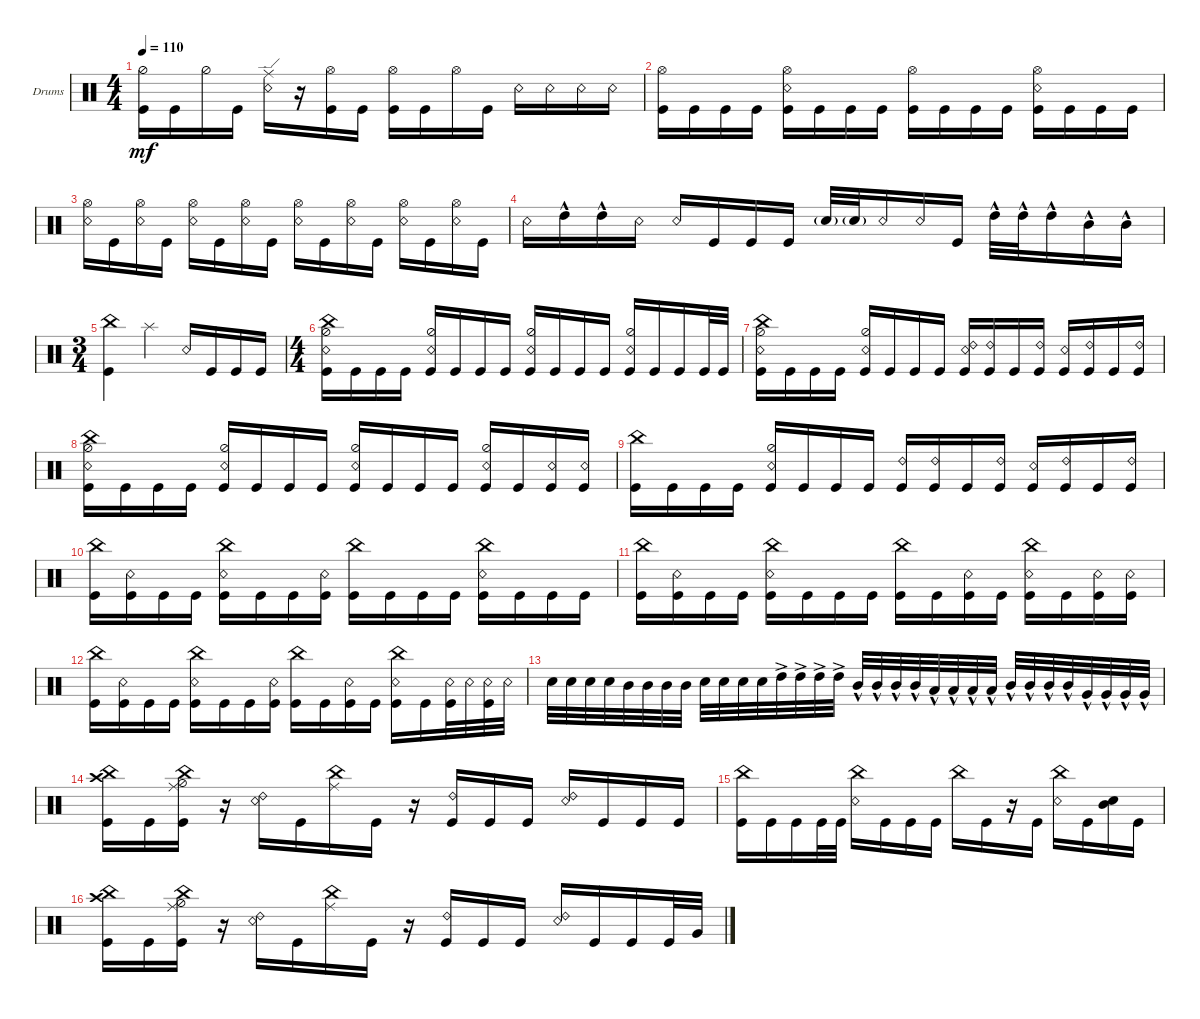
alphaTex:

\defaultSystemsLayout 4
\bracketExtendMode groupsimilarinstruments
\firstSystemTrackNameOrientation horizontal
\otherSystemsTrackNameOrientation horizontal
\track ("Drumkit" "Drums") {instrument percussion}
\staff {score}
\articulation defaults
\ts (4 4)
\tempo 110
\clef neutral
\ks c
("Kick (hit)" "Hi-Hat (half)").16{dy mf} "Kick (hit)".16 "Hi-Hat (half)".16 "Kick (hit)".16 ("Ride (edge)" "Snare (rim shot)").16 r.16 ("Kick (hit)" "Hi-Hat (open)").16 "Kick (hit)".16 ("Kick (hit)" "Hi-Hat (open)").16 "Kick (hit)".16 "Hi-Hat (open)".16 "Kick (hit)".16 "Snare (rim shot)".16 "Snare (rim shot)".16 "Snare (rim shot)".16 "Snare (rim shot)".16 |
("Kick (hit)" "Hi-Hat (open)").16 "Kick (hit)".16 "Kick (hit)".16 "Kick (hit)".16 ("Kick (hit)" "Snare (rim shot)" "Hi-Hat (open)").16 "Kick (hit)".16 "Kick (hit)".16 "Kick (hit)".16 ("Kick (hit)" "Hi-Hat (open)").16 "Kick (hit)".16 "Kick (hit)".16 "Kick (hit)".16 ("Kick (hit)" "Snare (rim shot)" "Hi-Hat (open)").16 "Kick (hit)".16 "Kick (hit)".16 "Kick (hit)".16 |
("Snare (rim shot)" "Hi-Hat (open)").16 "Kick (hit)".16 ("Snare (rim shot)" "Hi-Hat (open)").16 "Kick (hit)".16 ("Snare (rim shot)" "Hi-Hat (open)").16 "Kick (hit)".16 ("Snare (rim shot)" "Hi-Hat (open)").16 "Kick (hit)".16 ("Snare (rim shot)" "Hi-Hat (open)").16 "Kick (hit)".16 ("Snare (rim shot)" "Hi-Hat (open)").16 "Kick (hit)".16 ("Snare (rim shot)" "Hi-Hat (open)").16 "Kick (hit)".16 ("Snare (rim shot)" "Hi-Hat (open)").16 "Kick (hit)".16 |
"Snare (rim shot)".16 "High Tom (hit)"{hac}.16 "High Tom (hit)"{hac}.16 "Snare (rim shot)".16 "Snare (rim shot)".16 "Kick (hit)".16 "Kick (hit)".16 "Kick (hit)".16 "Snare (hit) 2"{g}.32 "Snare (hit) 2"{g}.32 "Snare (rim shot)".16 "Snare (rim shot)".16 "Kick (hit)".16 "High Tom (hit)"{hac}.32 "High Tom (hit)"{hac}.32 "High Tom (hit)"{hac}.16 "Mid Tom (hit)"{hac}.16 "Mid Tom (hit)"{hac}.16 |
\ts (3 4)
("Kick (hit)" "China (hit)").4 "Splash (hit)".4 "Snare (rim shot)".16 "Kick (hit)".16 "Kick (hit)".16 "Kick (hit)".16 |
\ts (4 4)
("Kick (hit)" "Snare (rim shot)" "Hi-Hat (half)" "China (hit)").16 "Kick (hit)".16 "Kick (hit)".16 "Kick (hit)".16 ("Kick (hit)" "Snare (rim shot)" "Hi-Hat (half)").16 "Kick (hit)".16 "Kick (hit)".16 "Kick (hit)".16 ("Kick (hit)" "Snare (rim shot)" "Hi-Hat (half)").16 "Kick (hit)".16 "Kick (hit)".16 "Kick (hit)".16 ("Kick (hit)" "Snare (rim shot)" "Hi-Hat (half)").16 "Kick (hit)".16 "Kick (hit)".16 "Kick (hit)".32 "Kick (hit)".32 |
("Kick (hit)" "Snare (rim shot)" "Hi-Hat (half)" "China (hit)").16 "Kick (hit)".16 "Kick (hit)".16 "Kick (hit)".16 ("Kick (hit)" "Snare (rim shot)" "Hi-Hat (half)").16 "Kick (hit)".16 "Kick (hit)".16 "Kick (hit)".16 ("Kick (hit)" "Snare (rim shot)" "Ride (bell) 2").16 ("Kick (hit)" "Ride (bell) 2").16 "Kick (hit)".16 ("Kick (hit)" "Ride (bell) 2").16 ("Kick (hit)" "Snare (rim shot)").16 ("Kick (hit)" "Ride (bell) 2").16 "Kick (hit)".16 ("Kick (hit)" "Ride (bell) 2").16 |
("Kick (hit)" "Snare (rim shot)" "Hi-Hat (half)" "China (hit)").16 "Kick (hit)".16 "Kick (hit)".16 "Kick (hit)".16 ("Kick (hit)" "Snare (rim shot)" "Hi-Hat (half)").16 "Kick (hit)".16 "Kick (hit)".16 "Kick (hit)".16 ("Kick (hit)" "Snare (rim shot)" "Hi-Hat (half)").16 "Kick (hit)".16 "Kick (hit)".16 "Kick (hit)".16 ("Kick (hit)" "Snare (rim shot)" "Hi-Hat (half)").16 "Kick (hit)".16 ("Kick (hit)" "Snare (rim shot)").16 ("Kick (hit)" "Snare (rim shot)").16 |
("Kick (hit)" "China (hit)").16 "Kick (hit)".16 "Kick (hit)".16 "Kick (hit)".16 ("Kick (hit)" "Snare (rim shot)" "Hi-Hat (half)").16 "Kick (hit)".16 "Kick (hit)".16 "Kick (hit)".16 ("Kick (hit)" "Ride (bell) 2").16 ("Kick (hit)" "Ride (bell) 2").16 "Kick (hit)".16 ("Kick (hit)" "Ride (bell) 2").16 ("Kick (hit)" "Snare (rim shot)").16 ("Kick (hit)" "Ride (bell) 2").16 "Kick (hit)".16 ("Kick (hit)" "Ride (bell) 2").16 |
("Kick (hit)" "China (hit)").16 ("Kick (hit)" "Snare (rim shot)").16 "Kick (hit)".16 "Kick (hit)".16 ("Kick (hit)" "Snare (rim shot)" "China (hit)").16 "Kick (hit)".16 "Kick (hit)".16 ("Kick (hit)" "Snare (rim shot)").16 ("Kick (hit)" "China (hit)").16 "Kick (hit)".16 "Kick (hit)".16 "Kick (hit)".16 ("Kick (hit)" "Snare (rim shot)" "China (hit)").16 "Kick (hit)".16 "Kick (hit)".16 "Kick (hit)".16 |
("Kick (hit)" "China (hit)").16 ("Kick (hit)" "Snare (rim shot)").16 "Kick (hit)".16 "Kick (hit)".16 ("Kick (hit)" "Snare (rim shot)" "China (hit)").16 "Kick (hit)".16 "Kick (hit)".16 "Kick (hit)".16 ("Kick (hit)" "China (hit)").16 "Kick (hit)".16 ("Kick (hit)" "Snare (rim shot)").16 "Kick (hit)".16 ("Kick (hit)" "Snare (rim shot)" "China (hit)").16 "Kick (hit)".16 ("Kick (hit)" "Snare (rim shot)").16 ("Kick (hit)" "Snare (rim shot)").16 |
("Kick (hit)" "China (hit)").16 ("Kick (hit)" "Snare (rim shot)").16 "Kick (hit)".16 "Kick (hit)".16 ("Kick (hit)" "Snare (rim shot)" "China (hit)").16 "Kick (hit)".16 "Kick (hit)".16 ("Kick (hit)" "Snare (rim shot)").16 ("Kick (hit)" "China (hit)").16 "Kick (hit)".16 ("Kick (hit)" "Snare (rim shot)").16 "Kick (hit)".16 ("Kick (hit)" "Snare (rim shot)" "China (hit)").16 "Kick (hit)".16 ("Kick (hit)" "Snare (rim shot)").32 "Snare (rim shot)".32 ("Snare (rim shot)" "Kick (hit)").32 "Snare (rim shot)".32 |
"Snare (hit) 2".32 "Snare (hit) 2".32 "Snare (hit) 2".32 "Snare (hit) 2".32 "Mid Tom (hit)".32 "Mid Tom (hit)".32 "Mid Tom (hit)".32 "Mid Tom (hit)".32 "Snare (hit) 2".32 "Snare (hit) 2".32 "Snare (hit) 2".32 "Snare (hit) 2".32 "High Tom (hit)"{ac}.32 "High Tom (hit)"{ac}.32 "High Tom (hit)"{ac}.32 "High Tom (hit)"{ac}.32 "Mid Tom (hit)"{hac}.32 "Mid Tom (hit)"{hac}.32 "Mid Tom (hit)"{hac}.32 "Mid Tom (hit)"{hac}.32 "Low Tom (hit)"{hac}.32 "Low Tom (hit)"{hac}.32 "Low Tom (hit)"{hac}.32 "Low Tom (hit)"{hac}.32 "Mid Tom (hit)"{hac}.32 "Mid Tom (hit)"{hac}.32 "Mid Tom (hit)"{hac}.32 "Mid Tom (hit)"{hac}.32 "Very Low Tom (hit)"{hac}.32 "Very Low Tom (hit)"{hac}.32 "Very Low Tom (hit)"{hac}.32 "Very Low Tom (hit)"{hac}.32 |
("Crash high (hit)" "China (hit)" "Kick (hit)").16 "Kick (hit)".16 ("Kick (hit)" "Ride (middle)" "Hi-Hat (half)" "China (hit)").16 r.16 ("Snare (rim shot)" "Ride (bell) 2").16 "Kick (hit)".16 ("Ride (middle)" "China (hit)").16 "Kick (hit)".16 r.16 ("Kick (hit)" "Ride (bell) 2").16 "Kick (hit)".16 "Kick (hit)".16 ("Snare (rim shot)" "Ride (bell) 2").16 "Kick (hit)".16 "Kick (hit)".16 "Kick (hit)".16 |
\scale
0.34702 ("China (hit)" "Kick (hit)").16 "Kick (hit)".16 "Kick (hit)".16 "Kick (hit)".32 "Kick (hit)".32 ("Snare (rim shot)" "China (hit)").16 "Kick (hit)".16 "Kick (hit)".16 "Kick (hit)".16 "China (hit)".16 "Kick (hit)".16 r.16 "Kick (hit)".16 ("Snare (rim shot)" "China (hit)").16 "Kick (hit)".16 ("Mid Tom (hit)" "Snare (hit) 2").16 "Kick (hit)".16 |
\scale
0.345123 ("Crash high (hit)" "China (hit)" "Kick (hit)").16 "Kick (hit)".16 ("Kick (hit)" "Ride (middle)" "Hi-Hat (half)" "China (hit)").16 r.16 ("Snare (rim shot)" "Ride (bell) 2").16 "Kick (hit)".16 ("Ride (middle)" "China (hit)").16 "Kick (hit)".16 r.16 ("Kick (hit)" "Ride (bell) 2").16 "Kick (hit)".16 "Kick (hit)".16 ("Snare (rim shot)" "Ride (bell) 2").16 "Kick (hit)".16 "Kick (hit)".16 "Kick (hit)".32 "Very Low Tom (hit)".32
